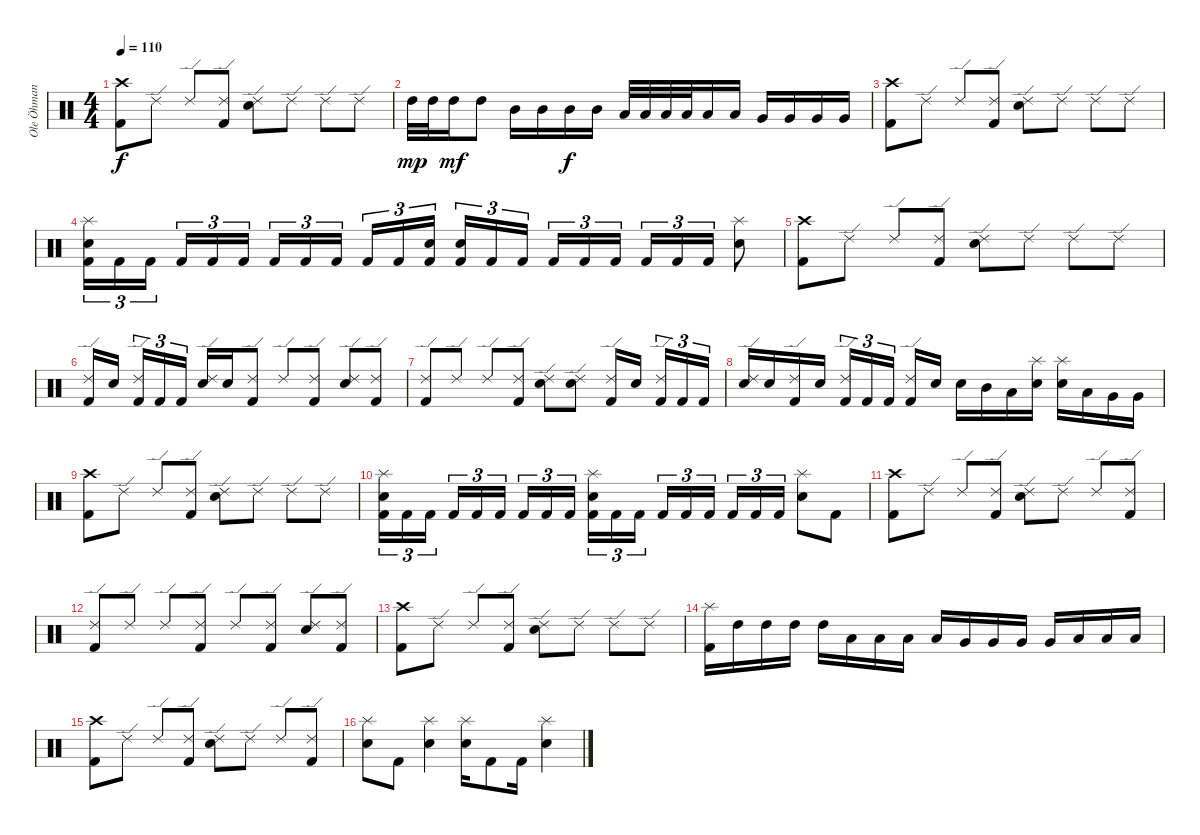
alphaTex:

\track ("Ole Öhman" "Ole Öhman") {instrument percussion}
\staff {score}
\articulation defaults
\ts (4 4)
\tempo 110
\clef neutral
\ks c
("Crash high (hit)" "Kick (hit) 2").8{dy f} "Ride (edge) 2".8 "Ride (edge) 2".8 ("Ride (edge) 2" "Kick (hit) 2").8 ("Ride (edge) 2" "Electric Snare (hit)").8 "Ride (edge) 2".8 "Ride (edge) 2".8 "Ride (edge) 2".8 |
"High Tom (hit)".32{dy mp} "High Tom (hit)".32 "High Tom (hit)".16{dy mf} "High Tom (hit)".8 "Mid Tom (hit)".16 "Mid Tom (hit)".16 "Mid Tom (hit)".16{dy f} "Mid Tom (hit)".16 "Low Tom (hit)".32 "Low Tom (hit)".32 "Low Tom (hit)".32 "Low Tom (hit)".32 "Low Tom (hit)".16 "Low Tom (hit)".16 "Very Low Tom (hit)".16 "Very Low Tom (hit)".16 "Very Low Tom (hit)".16 "Very Low Tom (hit)".16 |
("Crash high (hit)" "Kick (hit) 2").8 "Ride (edge) 2".8 "Ride (edge) 2".8 ("Ride (edge) 2" "Kick (hit) 2").8 ("Ride (edge) 2" "Electric Snare (hit)").8 "Ride (edge) 2".8 "Ride (edge) 2".8 "Ride (edge) 2".8 |
("Splash (hit)" "Electric Snare (hit)" "Kick (hit) 2").16{tu (3 2)} "Kick (hit) 2".16{tu (3 2)} "Kick (hit) 2".16{tu (3 2) beam splitsecondary} "Kick (hit) 2".16{tu (3 2)} "Kick (hit) 2".16{tu (3 2)} "Kick (hit) 2".16{tu (3 2)} "Kick (hit) 2".16{tu (3 2)} "Kick (hit) 2".16{tu (3 2)} "Kick (hit) 2".16{tu (3 2) beam splitsecondary} "Kick (hit) 2".16{tu (3 2)} "Kick (hit) 2".16{tu (3 2)} ("Electric Snare (hit)" "Kick (hit) 2").16{tu (3 2)} ("Electric Snare (hit)" "Kick (hit) 2").16{tu (3 2)} "Kick (hit) 2".16{tu (3 2)} "Kick (hit) 2".16{tu (3 2) beam splitsecondary} "Kick (hit) 2".16{tu (3 2)} "Kick (hit) 2".16{tu (3 2)} "Kick (hit) 2".16{tu (3 2)} "Kick (hit) 2".16{tu (3 2)} "Kick (hit) 2".16{tu (3 2)} "Kick (hit) 2".16{tu (3 2)} ("Splash (hit)" "Electric Snare (hit)").8 |
("Crash high (hit)" "Kick (hit) 2").8 "Ride (edge) 2".8 "Ride (edge) 2".8 ("Ride (edge) 2" "Kick (hit) 2").8 ("Ride (edge) 2" "Electric Snare (hit)").8 "Ride (edge) 2".8 "Ride (edge) 2".8 "Ride (edge) 2".8 |
("Ride (edge) 2" "Kick (hit) 2").16 "Electric Snare (hit)".16{beam splitsecondary} ("Ride (edge) 2" "Kick (hit) 2").16{tu (3 2)} "Kick (hit) 2".16{tu (3 2)} "Kick (hit) 2".16{tu (3 2)} ("Ride (edge) 2" "Electric Snare (hit)").16 "Electric Snare (hit)".16 ("Ride (edge) 2" "Kick (hit) 2").8 "Ride (edge) 2".8 ("Ride (edge) 2" "Kick (hit) 2").8 ("Ride (edge) 2" "Electric Snare (hit)").8 ("Ride (edge) 2" "Kick (hit) 2").8 |
("Ride (edge) 2" "Kick (hit) 2").8 "Ride (edge) 2".8 "Ride (edge) 2".8 ("Ride (edge) 2" "Kick (hit) 2").8 ("Ride (edge) 2" "Electric Snare (hit)").8 ("Ride (edge) 2" "Electric Snare (hit)").8 ("Ride (edge) 2" "Kick (hit) 2").16 "Electric Snare (hit)".16{beam splitsecondary} ("Ride (edge) 2" "Kick (hit) 2").16{tu (3 2)} "Kick (hit) 2".16{tu (3 2)} "Kick (hit) 2".16{tu (3 2)} |
("Ride (edge) 2" "Electric Snare (hit)").16 "Electric Snare (hit)".16 ("Ride (edge) 2" "Kick (hit) 2").16 "Electric Snare (hit)".16 ("Ride (edge) 2" "Kick (hit) 2").16{tu (3 2)} "Kick (hit) 2".16{tu (3 2)} "Kick (hit) 2".16{tu (3 2) beam splitsecondary} ("Ride (edge) 2" "Kick (hit) 2").16 "Electric Snare (hit)".16 "Electric Snare (hit)".16 "Mid Tom (hit)".16 "Low Tom (hit)".16 ("Splash (hit)" "Electric Snare (hit)").16 ("Splash (hit)" "Electric Snare (hit)").16 "Low Tom (hit)".16 "Very Low Tom (hit)".16 "Very Low Tom (hit)".16 |
("Crash high (hit)" "Kick (hit) 2").8 "Ride (edge) 2".8 "Ride (edge) 2".8 ("Ride (edge) 2" "Kick (hit) 2").8 ("Ride (edge) 2" "Electric Snare (hit)").8 "Ride (edge) 2".8 "Ride (edge) 2".8 "Ride (edge) 2".8 |
("Splash (hit)" "Electric Snare (hit)" "Kick (hit) 2").16{tu (3 2)} "Kick (hit) 2".16{tu (3 2)} "Kick (hit) 2".16{tu (3 2) beam splitsecondary} "Kick (hit) 2".16{tu (3 2)} "Kick (hit) 2".16{tu (3 2)} "Kick (hit) 2".16{tu (3 2)} "Kick (hit) 2".16{tu (3 2)} "Kick (hit) 2".16{tu (3 2)} "Kick (hit) 2".16{tu (3 2) beam splitsecondary} ("Splash (hit)" "Electric Snare (hit)" "Kick (hit) 2").16{tu (3 2)} "Kick (hit) 2".16{tu (3 2)} "Kick (hit) 2".16{tu (3 2)} "Kick (hit) 2".16{tu (3 2)} "Kick (hit) 2".16{tu (3 2)} "Kick (hit) 2".16{tu (3 2) beam splitsecondary} "Kick (hit) 2".16{tu (3 2)} "Kick (hit) 2".16{tu (3 2)} "Kick (hit) 2".16{tu (3 2)} ("Splash (hit)" "Electric Snare (hit)").8 "Kick (hit) 2".8 |
("Crash high (hit)" "Kick (hit) 2").8 "Ride (edge) 2".8 "Ride (edge) 2".8 ("Ride (edge) 2" "Kick (hit) 2").8 ("Ride (edge) 2" "Electric Snare (hit)").8 "Ride (edge) 2".8 "Ride (edge) 2".8 ("Ride (edge) 2" "Kick (hit) 2").8 |
("Ride (edge) 2" "Kick (hit) 2").8 "Ride (edge) 2".8 "Ride (edge) 2".8 ("Ride (edge) 2" "Kick (hit) 2").8 "Ride (edge) 2".8 ("Ride (edge) 2" "Kick (hit) 2").8 ("Ride (edge) 2" "Electric Snare (hit)").8 ("Ride (edge) 2" "Kick (hit) 2").8 |
("Crash high (hit)" "Kick (hit) 2").8 "Ride (edge) 2".8 "Ride (edge) 2".8 ("Ride (edge) 2" "Kick (hit) 2").8 ("Ride (edge) 2" "Electric Snare (hit)").8 "Ride (edge) 2".8 "Ride (edge) 2".8 "Ride (edge) 2".8 |
("Splash (hit)" "Kick (hit) 2").16 "High Tom (hit)".16 "High Tom (hit)".16 "High Tom (hit)".16 "High Tom (hit)".16 "Low Tom (hit)".16 "Low Tom (hit)".16 "Low Tom (hit)".16 "Low Tom (hit)".16 "Very Low Tom (hit)".16 "Very Low Tom (hit)".16 "Very Low Tom (hit)".16 "Very Low Tom (hit)".16 "Low Floor Tom (hit)".16 "Low Floor Tom (hit)".16 "Low Floor Tom (hit)".16 |
("Crash high (hit)" "Kick (hit) 2").8 "Ride (edge) 2".8 "Ride (edge) 2".8 ("Ride (edge) 2" "Kick (hit) 2").8 ("Ride (edge) 2" "Electric Snare (hit)").8 "Ride (edge) 2".8 "Ride (edge) 2".8 ("Ride (edge) 2" "Kick (hit) 2").8 |
("Splash (hit)" "Electric Snare (hit)").8 "Kick (hit) 2".8 ("Splash (hit)" "Electric Snare (hit)").4 ("Splash (hit)" "Electric Snare (hit)").16 "Kick (hit) 2".8 "Kick (hit) 2".16 ("Splash (hit)" "Electric Snare (hit)").4
